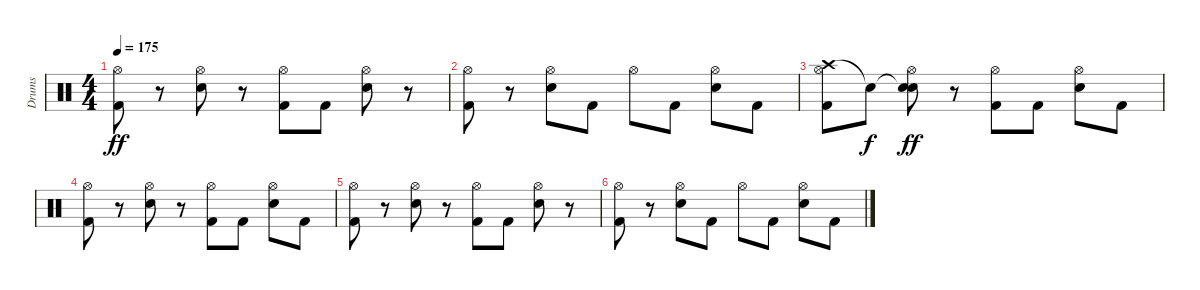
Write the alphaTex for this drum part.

\track ("Drums" "Drums") {instrument percussion}
\staff {score}
\articulation defaults
\ts (4 4)
\tempo 175
\clef neutral
\ks c
("Hi-Hat (open)" "Kick (hit) 2").8{dy ff} r.8 ("Hi-Hat (open)" "Electric Snare (hit)").8 r.8 ("Hi-Hat (open)" "Kick (hit) 2").8 "Kick (hit) 2".8 ("Hi-Hat (open)" "Electric Snare (hit)").8 r.8 |
("Hi-Hat (open)" "Kick (hit) 2").8 r.8 ("Hi-Hat (open)" "Electric Snare (hit)").8 "Kick (hit) 2".8 "Hi-Hat (open)".8 "Kick (hit) 2".8 ("Hi-Hat (open)" "Electric Snare (hit)").8 "Kick (hit) 2".8 |
("Crash high (hit)" "Hi-Hat (open)" "Kick (hit) 2").8{volume 9} "Snare (hit)"{t}.8{dy f} ("Snare (hit)"{t} "Hi-Hat (open)" "Electric Snare (hit)").8{dy ff} r.8 ("Hi-Hat (open)" "Kick (hit) 2").8{volume 8} "Kick (hit) 2".8 ("Hi-Hat (open)" "Electric Snare (hit)").8 "Kick (hit) 2".8 |
("Hi-Hat (open)" "Kick (hit) 2").8{volume 7} r.8 ("Hi-Hat (open)" "Electric Snare (hit)").8 r.8 ("Hi-Hat (open)" "Kick (hit) 2").8{volume 6} "Kick (hit) 2".8 ("Hi-Hat (open)" "Electric Snare (hit)").8 "Kick (hit) 2".8 |
("Hi-Hat (open)" "Kick (hit) 2").8{volume 5} r.8 ("Hi-Hat (open)" "Electric Snare (hit)").8 r.8 ("Hi-Hat (open)" "Kick (hit) 2").8{volume 4} "Kick (hit) 2".8 ("Hi-Hat (open)" "Electric Snare (hit)").8 r.8 |
("Hi-Hat (open)" "Kick (hit) 2").8{volume 3} r.8 ("Hi-Hat (open)" "Electric Snare (hit)").8{volume 2} "Kick (hit) 2".8 "Hi-Hat (open)".8{volume 1} "Kick (hit) 2".8 ("Hi-Hat (open)" "Electric Snare (hit)").8{volume 0} "Kick (hit) 2".8
